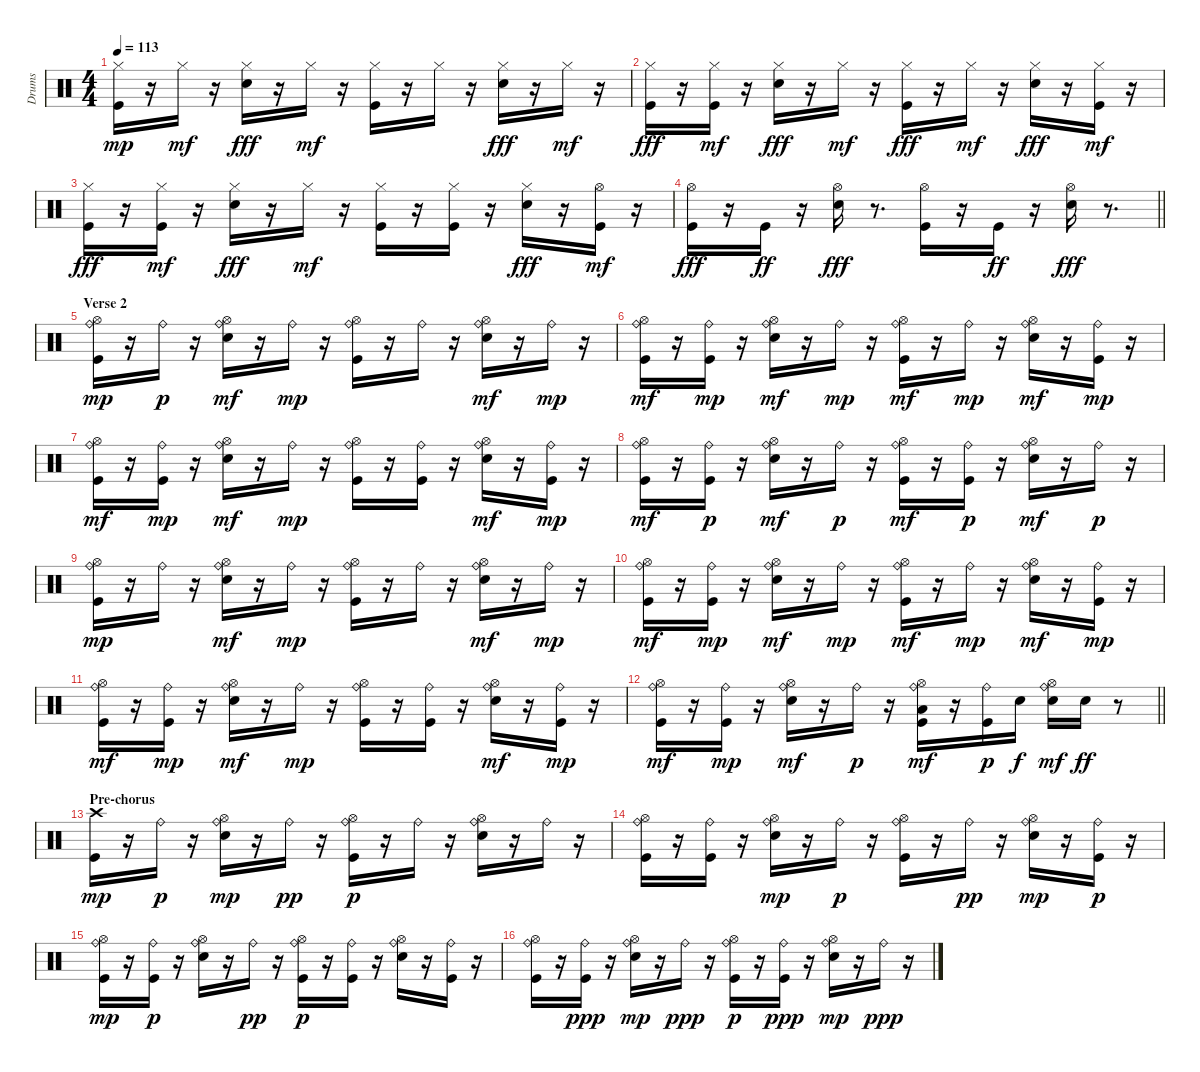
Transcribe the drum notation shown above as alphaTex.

\track ("Drums" "Drums") {instrument percussion}
\staff {score}
\articulation defaults
\ts (4 4)
\tempo 113
\clef neutral
\ks c
("Kick (hit)" "Hi-Hat (closed)").16{dy mp} r.16 "Hi-Hat (closed)".16{dy mf} r.16 ("Electric Snare (hit)" "Hi-Hat (closed)").16{dy fff} r.16 "Hi-Hat (closed)".16{dy mf} r.16 ("Kick (hit)" "Hi-Hat (closed)").16 r.16 "Hi-Hat (closed)".16 r.16 ("Electric Snare (hit)" "Hi-Hat (closed)").16{dy fff} r.16 "Hi-Hat (closed)".16{dy mf} r.16 |
("Kick (hit)" "Hi-Hat (closed)").16{dy fff} r.16 ("Kick (hit)" "Hi-Hat (closed)").16{dy mf} r.16 ("Electric Snare (hit)" "Hi-Hat (closed)").16{dy fff} r.16 "Hi-Hat (closed)".16{dy mf} r.16 ("Kick (hit)" "Hi-Hat (closed)").16{dy fff} r.16 "Hi-Hat (closed)".16{dy mf} r.16 ("Electric Snare (hit)" "Hi-Hat (closed)").16{dy fff} r.16 ("Kick (hit)" "Hi-Hat (closed)").16{dy mf} r.16 |
("Kick (hit)" "Hi-Hat (closed)").16{dy fff} r.16 ("Kick (hit)" "Hi-Hat (closed)").16{dy mf} r.16 ("Electric Snare (hit)" "Hi-Hat (closed)").16{dy fff} r.16 "Hi-Hat (closed)".16{dy mf} r.16 ("Kick (hit)" "Hi-Hat (closed)").16 r.16 ("Kick (hit)" "Hi-Hat (closed)").16 r.16 ("Electric Snare (hit)" "Hi-Hat (closed)").16{dy fff} r.16 ("Kick (hit)" "Hi-Hat (open)").16{dy mf} r.16 |
\barLineRight lightlight
("Kick (hit)" "Hi-Hat (open)").16{dy fff} r.16 "Kick (hit)".16{dy ff} r.16 ("Electric Snare (hit)" "Hi-Hat (open)").16{dy fff} r.8{d} ("Kick (hit)" "Hi-Hat (open)").16 r.16 "Kick (hit)".16{dy ff} r.16 ("Electric Snare (hit)" "Hi-Hat (open)").16{dy fff} r.8{d} |
\section ("" "Verse 2")
("Kick (hit)" "Hi-Hat (open)" "Ride (bell)").16{dy mp} r.16 "Ride (bell)".16{dy p} r.16 ("Electric Snare (hit)" "Hi-Hat (open)" "Ride (bell)").16{dy mf} r.16 "Ride (bell)".16{dy mp} r.16 ("Kick (hit)" "Hi-Hat (open)" "Ride (bell)").16 r.16 "Ride (bell)".16 r.16 ("Electric Snare (hit)" "Hi-Hat (open)" "Ride (bell)").16{dy mf} r.16 "Ride (bell)".16{dy mp} r.16 |
("Kick (hit)" "Hi-Hat (open)" "Ride (bell)").16{dy mf} r.16 ("Kick (hit)" "Ride (bell)").16{dy mp} r.16 ("Electric Snare (hit)" "Hi-Hat (open)" "Ride (bell)").16{dy mf} r.16 "Ride (bell)".16{dy mp} r.16 ("Kick (hit)" "Hi-Hat (open)" "Ride (bell)").16{dy mf} r.16 "Ride (bell)".16{dy mp} r.16 ("Electric Snare (hit)" "Hi-Hat (open)" "Ride (bell)").16{dy mf} r.16 ("Kick (hit)" "Ride (bell)").16{dy mp} r.16 |
("Kick (hit)" "Hi-Hat (open)" "Ride (bell)").16{dy mf} r.16 ("Kick (hit)" "Ride (bell)").16{dy mp} r.16 ("Electric Snare (hit)" "Hi-Hat (open)" "Ride (bell)").16{dy mf} r.16 "Ride (bell)".16{dy mp} r.16 ("Kick (hit)" "Hi-Hat (open)" "Ride (bell)").16 r.16 ("Kick (hit)" "Ride (bell)").16 r.16 ("Electric Snare (hit)" "Hi-Hat (open)" "Ride (bell)").16{dy mf} r.16 ("Kick (hit)" "Ride (bell)").16{dy mp} r.16 |
("Kick (hit)" "Hi-Hat (open)" "Ride (bell)").16{dy mf} r.16 ("Kick (hit)" "Ride (bell)").16{dy p} r.16 ("Electric Snare (hit)" "Hi-Hat (open)" "Ride (bell)").16{dy mf} r.16 "Ride (bell)".16{dy p} r.16 ("Kick (hit)" "Hi-Hat (open)" "Ride (bell)").16{dy mf} r.16 ("Kick (hit)" "Ride (bell)").16{dy p} r.16 ("Electric Snare (hit)" "Hi-Hat (open)" "Ride (bell)").16{dy mf} r.16 "Ride (bell)".16{dy p} r.16 |
("Kick (hit)" "Hi-Hat (open)" "Ride (bell)").16{dy mp} r.16 "Ride (bell)".16 r.16 ("Electric Snare (hit)" "Hi-Hat (open)" "Ride (bell)").16{dy mf} r.16 "Ride (bell)".16{dy mp} r.16 ("Kick (hit)" "Hi-Hat (open)" "Ride (bell)").16 r.16 "Ride (bell)".16 r.16 ("Electric Snare (hit)" "Hi-Hat (open)" "Ride (bell)").16{dy mf} r.16 "Ride (bell)".16{dy mp} r.16 |
("Kick (hit)" "Hi-Hat (open)" "Ride (bell)").16{dy mf} r.16 ("Kick (hit)" "Ride (bell)").16{dy mp} r.16 ("Electric Snare (hit)" "Hi-Hat (open)" "Ride (bell)").16{dy mf} r.16 "Ride (bell)".16{dy mp} r.16 ("Kick (hit)" "Hi-Hat (open)" "Ride (bell)").16{dy mf} r.16 "Ride (bell)".16{dy mp} r.16 ("Electric Snare (hit)" "Hi-Hat (open)" "Ride (bell)").16{dy mf} r.16 ("Kick (hit)" "Ride (bell)").16{dy mp} r.16 |
("Kick (hit)" "Hi-Hat (open)" "Ride (bell)").16{dy mf} r.16 ("Kick (hit)" "Ride (bell)").16{dy mp} r.16 ("Electric Snare (hit)" "Hi-Hat (open)" "Ride (bell)").16{dy mf} r.16 "Ride (bell)".16{dy mp} r.16 ("Kick (hit)" "Hi-Hat (open)" "Ride (bell)").16 r.16 ("Kick (hit)" "Ride (bell)").16 r.16 ("Electric Snare (hit)" "Hi-Hat (open)" "Ride (bell)").16{dy mf} r.16 ("Kick (hit)" "Ride (bell)").16{dy mp} r.16 |
\barLineRight lightlight
("Kick (hit)" "Hi-Hat (open)" "Ride (bell)").16{dy mf} r.16 ("Kick (hit)" "Ride (bell)").16{dy mp} r.16 ("Electric Snare (hit)" "Hi-Hat (open)" "Ride (bell)").16{dy mf} r.16 "Ride (bell)".16{dy p} r.16 ("Kick (hit)" "Low Tom (hit)" "Hi-Hat (open)" "Ride (bell)").16{dy mf} r.16 ("Kick (hit)" "Ride (bell)").16{dy p} "Electric Snare (hit)".16{dy f} ("Electric Snare (hit)" "Hi-Hat (open)" "Ride (bell)").16{dy mf} "Electric Snare (hit)".16{dy ff} r.8 |
\section ("" "Pre-chorus")
("Kick (hit)" "Crash high (hit)").16{dy mp} r.16 "Ride (bell)".16{dy p} r.16 ("Electric Snare (hit)" "Hi-Hat (open)" "Ride (bell)").16{dy mp} r.16 "Ride (bell)".16{dy pp} r.16 ("Kick (hit)" "Hi-Hat (open)" "Ride (bell)").16{dy p} r.16 "Ride (bell)".16 r.16 ("Electric Snare (hit)" "Hi-Hat (open)" "Ride (bell)").16 r.16 "Ride (bell)".16 r.16 |
("Kick (hit)" "Hi-Hat (open)" "Ride (bell)").16 r.16 ("Kick (hit)" "Ride (bell)").16 r.16 ("Electric Snare (hit)" "Hi-Hat (open)" "Ride (bell)").16{dy mp} r.16 "Ride (bell)".16{dy p} r.16 ("Kick (hit)" "Hi-Hat (open)" "Ride (bell)").16 r.16 "Ride (bell)".16{dy pp} r.16 ("Electric Snare (hit)" "Hi-Hat (open)" "Ride (bell)").16{dy mp} r.16 ("Kick (hit)" "Ride (bell)").16{dy p} r.16 |
("Kick (hit)" "Hi-Hat (open)" "Ride (bell)").16{dy mp} r.16 ("Kick (hit)" "Ride (bell)").16{dy p} r.16 ("Electric Snare (hit)" "Hi-Hat (open)" "Ride (bell)").16 r.16 "Ride (bell)".16{dy pp} r.16 ("Kick (hit)" "Hi-Hat (open)" "Ride (bell)").16{dy p} r.16 ("Kick (hit)" "Ride (bell)").16 r.16 ("Electric Snare (hit)" "Hi-Hat (open)" "Ride (bell)").16 r.16 ("Kick (hit)" "Ride (bell)").16 r.16 |
("Kick (hit)" "Hi-Hat (open)" "Ride (bell)").16 r.16 ("Kick (hit)" "Ride (bell)").16{dy ppp} r.16 ("Electric Snare (hit)" "Hi-Hat (open)" "Ride (bell)").16{dy mp} r.16 "Ride (bell)".16{dy ppp} r.16 ("Kick (hit)" "Hi-Hat (open)" "Ride (bell)").16{dy p} r.16 ("Kick (hit)" "Ride (bell)").16{dy ppp} r.16 ("Electric Snare (hit)" "Hi-Hat (open)" "Ride (bell)").16{dy mp} r.16 "Ride (bell)".16{dy ppp} r.16
